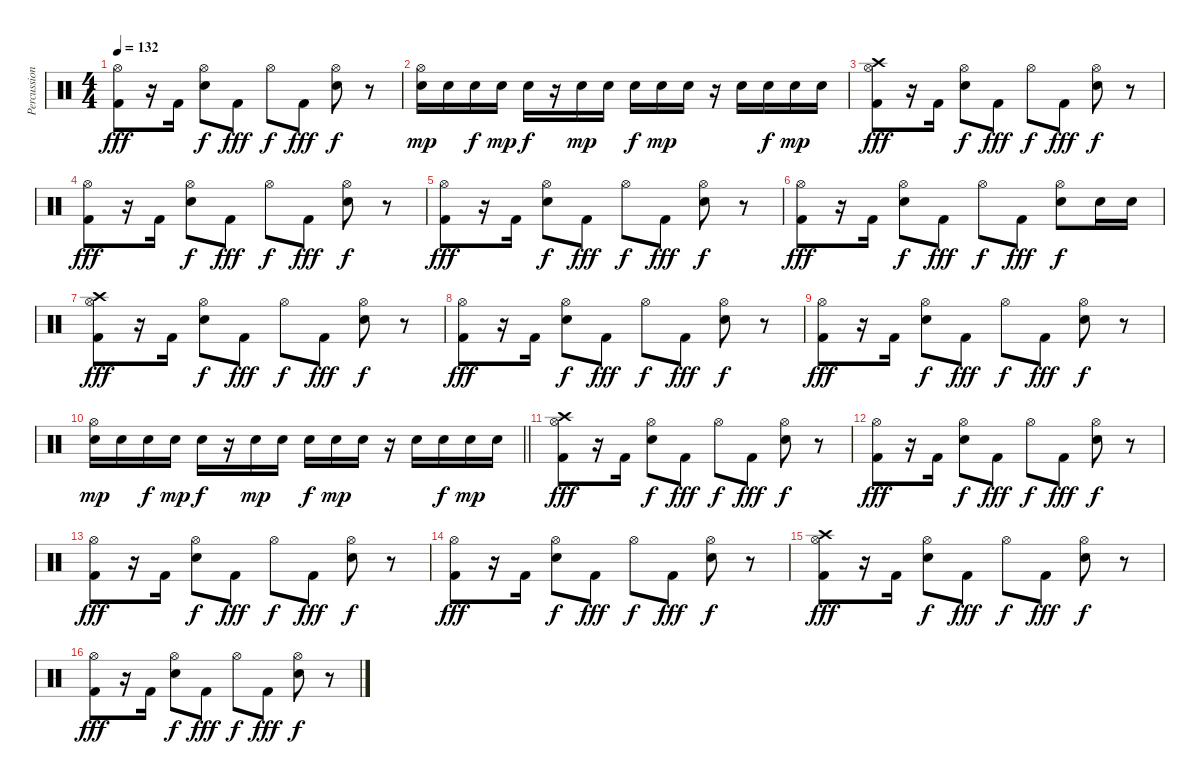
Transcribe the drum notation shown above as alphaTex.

\track ("Percussion" "Percussion") {instrument percussion}
\staff {score}
\articulation defaults
\ts (4 4)
\tempo 132
\clef neutral
\ks c
("Kick (hit) 2" "Hi-Hat (open)").8{dy fff} r.16 "Kick (hit) 2".16 ("Electric Snare (hit)" "Hi-Hat (open)").8{dy f} "Kick (hit) 2".8{dy fff} "Hi-Hat (open)".8{dy f} "Kick (hit) 2".8{dy fff} ("Electric Snare (hit)" "Hi-Hat (open)").8{dy f} r.8 |
("Electric Snare (hit)" "Hi-Hat (open)").16{dy mp} "Electric Snare (hit)".16 "Electric Snare (hit)".16{dy f} "Electric Snare (hit)".16{dy mp} "Electric Snare (hit)".16{dy f} r.16 "Electric Snare (hit)".16{dy mp} "Electric Snare (hit)".16 "Electric Snare (hit)".16{dy f} "Electric Snare (hit)".16{dy mp} "Electric Snare (hit)".16 r.16 "Electric Snare (hit)".16 "Electric Snare (hit)".16{dy f} "Electric Snare (hit)".16{dy mp} "Electric Snare (hit)".16 |
("Kick (hit) 2" "Hi-Hat (open)" "Crash high (hit)").8{dy fff} r.16 "Kick (hit) 2".16 ("Electric Snare (hit)" "Hi-Hat (open)").8{dy f} "Kick (hit) 2".8{dy fff} "Hi-Hat (open)".8{dy f} "Kick (hit) 2".8{dy fff} ("Electric Snare (hit)" "Hi-Hat (open)").8{dy f} r.8 |
("Kick (hit) 2" "Hi-Hat (open)").8{dy fff} r.16 "Kick (hit) 2".16 ("Electric Snare (hit)" "Hi-Hat (open)").8{dy f} "Kick (hit) 2".8{dy fff} "Hi-Hat (open)".8{dy f} "Kick (hit) 2".8{dy fff} ("Electric Snare (hit)" "Hi-Hat (open)").8{dy f} r.8 |
("Kick (hit) 2" "Hi-Hat (open)").8{dy fff} r.16 "Kick (hit) 2".16 ("Electric Snare (hit)" "Hi-Hat (open)").8{dy f} "Kick (hit) 2".8{dy fff} "Hi-Hat (open)".8{dy f} "Kick (hit) 2".8{dy fff} ("Electric Snare (hit)" "Hi-Hat (open)").8{dy f} r.8 |
("Kick (hit) 2" "Hi-Hat (open)").8{dy fff} r.16 "Kick (hit) 2".16 ("Electric Snare (hit)" "Hi-Hat (open)").8{dy f} "Kick (hit) 2".8{dy fff} "Hi-Hat (open)".8{dy f} "Kick (hit) 2".8{dy fff} ("Electric Snare (hit)" "Hi-Hat (open)").8{dy f} "Electric Snare (hit)".16 "Electric Snare (hit)".16 |
("Kick (hit) 2" "Hi-Hat (open)" "Crash high (hit)").8{dy fff} r.16 "Kick (hit) 2".16 ("Electric Snare (hit)" "Hi-Hat (open)").8{dy f} "Kick (hit) 2".8{dy fff} "Hi-Hat (open)".8{dy f} "Kick (hit) 2".8{dy fff} ("Electric Snare (hit)" "Hi-Hat (open)").8{dy f} r.8 |
("Kick (hit) 2" "Hi-Hat (open)").8{dy fff} r.16 "Kick (hit) 2".16 ("Electric Snare (hit)" "Hi-Hat (open)").8{dy f} "Kick (hit) 2".8{dy fff} "Hi-Hat (open)".8{dy f} "Kick (hit) 2".8{dy fff} ("Electric Snare (hit)" "Hi-Hat (open)").8{dy f} r.8 |
("Kick (hit) 2" "Hi-Hat (open)").8{dy fff} r.16 "Kick (hit) 2".16 ("Electric Snare (hit)" "Hi-Hat (open)").8{dy f} "Kick (hit) 2".8{dy fff} "Hi-Hat (open)".8{dy f} "Kick (hit) 2".8{dy fff} ("Electric Snare (hit)" "Hi-Hat (open)").8{dy f} r.8 |
\barLineRight lightlight
("Electric Snare (hit)" "Hi-Hat (open)").16{dy mp} "Electric Snare (hit)".16 "Electric Snare (hit)".16{dy f} "Electric Snare (hit)".16{dy mp} "Electric Snare (hit)".16{dy f} r.16 "Electric Snare (hit)".16{dy mp} "Electric Snare (hit)".16 "Electric Snare (hit)".16{dy f} "Electric Snare (hit)".16{dy mp} "Electric Snare (hit)".16 r.16 "Electric Snare (hit)".16 "Electric Snare (hit)".16{dy f} "Electric Snare (hit)".16{dy mp} "Electric Snare (hit)".16 |
\section ("" "")
("Kick (hit) 2" "Hi-Hat (open)" "Crash high (hit)").8{dy fff} r.16 "Kick (hit) 2".16 ("Electric Snare (hit)" "Hi-Hat (open)").8{dy f} "Kick (hit) 2".8{dy fff} "Hi-Hat (open)".8{dy f} "Kick (hit) 2".8{dy fff} ("Electric Snare (hit)" "Hi-Hat (open)").8{dy f} r.8 |
("Kick (hit) 2" "Hi-Hat (open)").8{dy fff} r.16 "Kick (hit) 2".16 ("Electric Snare (hit)" "Hi-Hat (open)").8{dy f} "Kick (hit) 2".8{dy fff} "Hi-Hat (open)".8{dy f} "Kick (hit) 2".8{dy fff} ("Electric Snare (hit)" "Hi-Hat (open)").8{dy f} r.8 |
("Kick (hit) 2" "Hi-Hat (open)").8{dy fff} r.16 "Kick (hit) 2".16 ("Electric Snare (hit)" "Hi-Hat (open)").8{dy f} "Kick (hit) 2".8{dy fff} "Hi-Hat (open)".8{dy f} "Kick (hit) 2".8{dy fff} ("Electric Snare (hit)" "Hi-Hat (open)").8{dy f} r.8 |
("Kick (hit) 2" "Hi-Hat (open)").8{dy fff} r.16 "Kick (hit) 2".16 ("Electric Snare (hit)" "Hi-Hat (open)").8{dy f} "Kick (hit) 2".8{dy fff} "Hi-Hat (open)".8{dy f} "Kick (hit) 2".8{dy fff} ("Electric Snare (hit)" "Hi-Hat (open)").8{dy f} r.8 |
("Kick (hit) 2" "Hi-Hat (open)" "Crash high (hit)").8{dy fff} r.16 "Kick (hit) 2".16 ("Electric Snare (hit)" "Hi-Hat (open)").8{dy f} "Kick (hit) 2".8{dy fff} "Hi-Hat (open)".8{dy f} "Kick (hit) 2".8{dy fff} ("Electric Snare (hit)" "Hi-Hat (open)").8{dy f} r.8 |
("Kick (hit) 2" "Hi-Hat (open)").8{dy fff} r.16 "Kick (hit) 2".16 ("Electric Snare (hit)" "Hi-Hat (open)").8{dy f} "Kick (hit) 2".8{dy fff} "Hi-Hat (open)".8{dy f} "Kick (hit) 2".8{dy fff} ("Electric Snare (hit)" "Hi-Hat (open)").8{dy f} r.8
